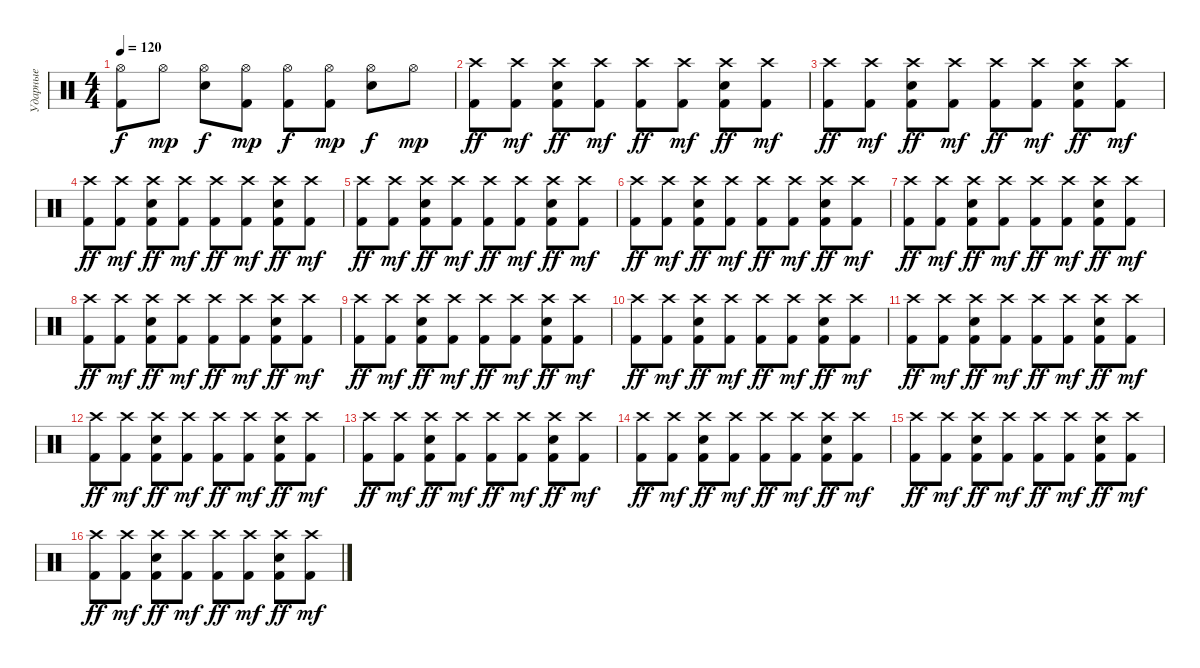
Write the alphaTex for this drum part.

\track ("Ударные" "Ударные") {instrument percussion}
\staff {score}
\articulation defaults
\ts (4 4)
\tempo 120
\clef neutral
\ks c
("Hi-Hat (open)" "Kick (hit) 2").8{dy f} "Hi-Hat (open)".8{dy mp} ("Hi-Hat (open)" "Snare (hit) 2").8{dy f} ("Hi-Hat (open)" "Kick (hit) 2").8{dy mp} ("Hi-Hat (open)" "Kick (hit) 2").8{dy f} ("Hi-Hat (open)" "Kick (hit) 2").8{dy mp} ("Hi-Hat (open)" "Snare (hit) 2").8{dy f} "Hi-Hat (open)".8{dy mp} |
("Crash high (hit)" "Kick (hit) 2").8{dy ff} ("Crash high (hit)" "Kick (hit) 2").8{dy mf} ("Crash high (hit)" "Electric Snare (hit)" "Kick (hit) 2").8{dy ff} ("Crash high (hit)" "Kick (hit) 2").8{dy mf} ("Crash high (hit)" "Kick (hit) 2").8{dy ff} ("Crash high (hit)" "Kick (hit) 2").8{dy mf} ("Crash high (hit)" "Electric Snare (hit)" "Kick (hit) 2").8{dy ff} ("Crash high (hit)" "Kick (hit) 2").8{dy mf} |
("Crash high (hit)" "Kick (hit) 2").8{dy ff} ("Crash high (hit)" "Kick (hit) 2").8{dy mf} ("Crash high (hit)" "Electric Snare (hit)" "Kick (hit) 2").8{dy ff} ("Crash high (hit)" "Kick (hit) 2").8{dy mf} ("Crash high (hit)" "Kick (hit) 2").8{dy ff} ("Crash high (hit)" "Kick (hit) 2").8{dy mf} ("Crash high (hit)" "Electric Snare (hit)" "Kick (hit) 2").8{dy ff} ("Crash high (hit)" "Kick (hit) 2").8{dy mf} |
("Crash high (hit)" "Kick (hit) 2").8{dy ff} ("Crash high (hit)" "Kick (hit) 2").8{dy mf} ("Crash high (hit)" "Electric Snare (hit)" "Kick (hit) 2").8{dy ff} ("Crash high (hit)" "Kick (hit) 2").8{dy mf} ("Crash high (hit)" "Kick (hit) 2").8{dy ff} ("Crash high (hit)" "Kick (hit) 2").8{dy mf} ("Crash high (hit)" "Electric Snare (hit)" "Kick (hit) 2").8{dy ff} ("Crash high (hit)" "Kick (hit) 2").8{dy mf} |
("Crash high (hit)" "Kick (hit) 2").8{dy ff} ("Crash high (hit)" "Kick (hit) 2").8{dy mf} ("Crash high (hit)" "Electric Snare (hit)" "Kick (hit) 2").8{dy ff} ("Crash high (hit)" "Kick (hit) 2").8{dy mf} ("Crash high (hit)" "Kick (hit) 2").8{dy ff} ("Crash high (hit)" "Kick (hit) 2").8{dy mf} ("Crash high (hit)" "Electric Snare (hit)" "Kick (hit) 2").8{dy ff} ("Crash high (hit)" "Kick (hit) 2").8{dy mf} |
("Crash high (hit)" "Kick (hit) 2").8{dy ff} ("Crash high (hit)" "Kick (hit) 2").8{dy mf} ("Crash high (hit)" "Electric Snare (hit)" "Kick (hit) 2").8{dy ff} ("Crash high (hit)" "Kick (hit) 2").8{dy mf} ("Crash high (hit)" "Kick (hit) 2").8{dy ff} ("Crash high (hit)" "Kick (hit) 2").8{dy mf} ("Crash high (hit)" "Electric Snare (hit)" "Kick (hit) 2").8{dy ff} ("Crash high (hit)" "Kick (hit) 2").8{dy mf} |
("Crash high (hit)" "Kick (hit) 2").8{dy ff} ("Crash high (hit)" "Kick (hit) 2").8{dy mf} ("Crash high (hit)" "Electric Snare (hit)" "Kick (hit) 2").8{dy ff} ("Crash high (hit)" "Kick (hit) 2").8{dy mf} ("Crash high (hit)" "Kick (hit) 2").8{dy ff} ("Crash high (hit)" "Kick (hit) 2").8{dy mf} ("Crash high (hit)" "Electric Snare (hit)" "Kick (hit) 2").8{dy ff} ("Crash high (hit)" "Kick (hit) 2").8{dy mf} |
("Crash high (hit)" "Kick (hit) 2").8{dy ff} ("Crash high (hit)" "Kick (hit) 2").8{dy mf} ("Crash high (hit)" "Electric Snare (hit)" "Kick (hit) 2").8{dy ff} ("Crash high (hit)" "Kick (hit) 2").8{dy mf} ("Crash high (hit)" "Kick (hit) 2").8{dy ff} ("Crash high (hit)" "Kick (hit) 2").8{dy mf} ("Crash high (hit)" "Electric Snare (hit)" "Kick (hit) 2").8{dy ff} ("Crash high (hit)" "Kick (hit) 2").8{dy mf} |
("Crash high (hit)" "Kick (hit) 2").8{dy ff} ("Crash high (hit)" "Kick (hit) 2").8{dy mf} ("Crash high (hit)" "Electric Snare (hit)" "Kick (hit) 2").8{dy ff} ("Crash high (hit)" "Kick (hit) 2").8{dy mf} ("Crash high (hit)" "Kick (hit) 2").8{dy ff} ("Crash high (hit)" "Kick (hit) 2").8{dy mf} ("Crash high (hit)" "Electric Snare (hit)" "Kick (hit) 2").8{dy ff} ("Crash high (hit)" "Kick (hit) 2").8{dy mf} |
("Crash high (hit)" "Kick (hit) 2").8{dy ff} ("Crash high (hit)" "Kick (hit) 2").8{dy mf} ("Crash high (hit)" "Electric Snare (hit)" "Kick (hit) 2").8{dy ff} ("Crash high (hit)" "Kick (hit) 2").8{dy mf} ("Crash high (hit)" "Kick (hit) 2").8{dy ff} ("Crash high (hit)" "Kick (hit) 2").8{dy mf} ("Crash high (hit)" "Electric Snare (hit)" "Kick (hit) 2").8{dy ff} ("Crash high (hit)" "Kick (hit) 2").8{dy mf} |
("Crash high (hit)" "Kick (hit) 2").8{dy ff} ("Crash high (hit)" "Kick (hit) 2").8{dy mf} ("Crash high (hit)" "Electric Snare (hit)" "Kick (hit) 2").8{dy ff} ("Crash high (hit)" "Kick (hit) 2").8{dy mf} ("Crash high (hit)" "Kick (hit) 2").8{dy ff} ("Crash high (hit)" "Kick (hit) 2").8{dy mf} ("Crash high (hit)" "Electric Snare (hit)" "Kick (hit) 2").8{dy ff} ("Crash high (hit)" "Kick (hit) 2").8{dy mf} |
("Crash high (hit)" "Kick (hit) 2").8{dy ff} ("Crash high (hit)" "Kick (hit) 2").8{dy mf} ("Crash high (hit)" "Electric Snare (hit)" "Kick (hit) 2").8{dy ff} ("Crash high (hit)" "Kick (hit) 2").8{dy mf} ("Crash high (hit)" "Kick (hit) 2").8{dy ff} ("Crash high (hit)" "Kick (hit) 2").8{dy mf} ("Crash high (hit)" "Electric Snare (hit)" "Kick (hit) 2").8{dy ff} ("Crash high (hit)" "Kick (hit) 2").8{dy mf} |
("Crash high (hit)" "Kick (hit) 2").8{dy ff} ("Crash high (hit)" "Kick (hit) 2").8{dy mf} ("Crash high (hit)" "Electric Snare (hit)" "Kick (hit) 2").8{dy ff} ("Crash high (hit)" "Kick (hit) 2").8{dy mf} ("Crash high (hit)" "Kick (hit) 2").8{dy ff} ("Crash high (hit)" "Kick (hit) 2").8{dy mf} ("Crash high (hit)" "Electric Snare (hit)" "Kick (hit) 2").8{dy ff} ("Crash high (hit)" "Kick (hit) 2").8{dy mf} |
("Crash high (hit)" "Kick (hit) 2").8{dy ff} ("Crash high (hit)" "Kick (hit) 2").8{dy mf} ("Crash high (hit)" "Electric Snare (hit)" "Kick (hit) 2").8{dy ff} ("Crash high (hit)" "Kick (hit) 2").8{dy mf} ("Crash high (hit)" "Kick (hit) 2").8{dy ff} ("Crash high (hit)" "Kick (hit) 2").8{dy mf} ("Crash high (hit)" "Electric Snare (hit)" "Kick (hit) 2").8{dy ff} ("Crash high (hit)" "Kick (hit) 2").8{dy mf} |
("Crash high (hit)" "Kick (hit) 2").8{dy ff} ("Crash high (hit)" "Kick (hit) 2").8{dy mf} ("Crash high (hit)" "Electric Snare (hit)" "Kick (hit) 2").8{dy ff} ("Crash high (hit)" "Kick (hit) 2").8{dy mf} ("Crash high (hit)" "Kick (hit) 2").8{dy ff} ("Crash high (hit)" "Kick (hit) 2").8{dy mf} ("Crash high (hit)" "Electric Snare (hit)" "Kick (hit) 2").8{dy ff} ("Crash high (hit)" "Kick (hit) 2").8{dy mf} |
("Crash high (hit)" "Kick (hit) 2").8{dy ff} ("Crash high (hit)" "Kick (hit) 2").8{dy mf} ("Crash high (hit)" "Electric Snare (hit)" "Kick (hit) 2").8{dy ff} ("Crash high (hit)" "Kick (hit) 2").8{dy mf} ("Crash high (hit)" "Kick (hit) 2").8{dy ff} ("Crash high (hit)" "Kick (hit) 2").8{dy mf} ("Crash high (hit)" "Electric Snare (hit)" "Kick (hit) 2").8{dy ff} ("Crash high (hit)" "Kick (hit) 2").8{dy mf}
